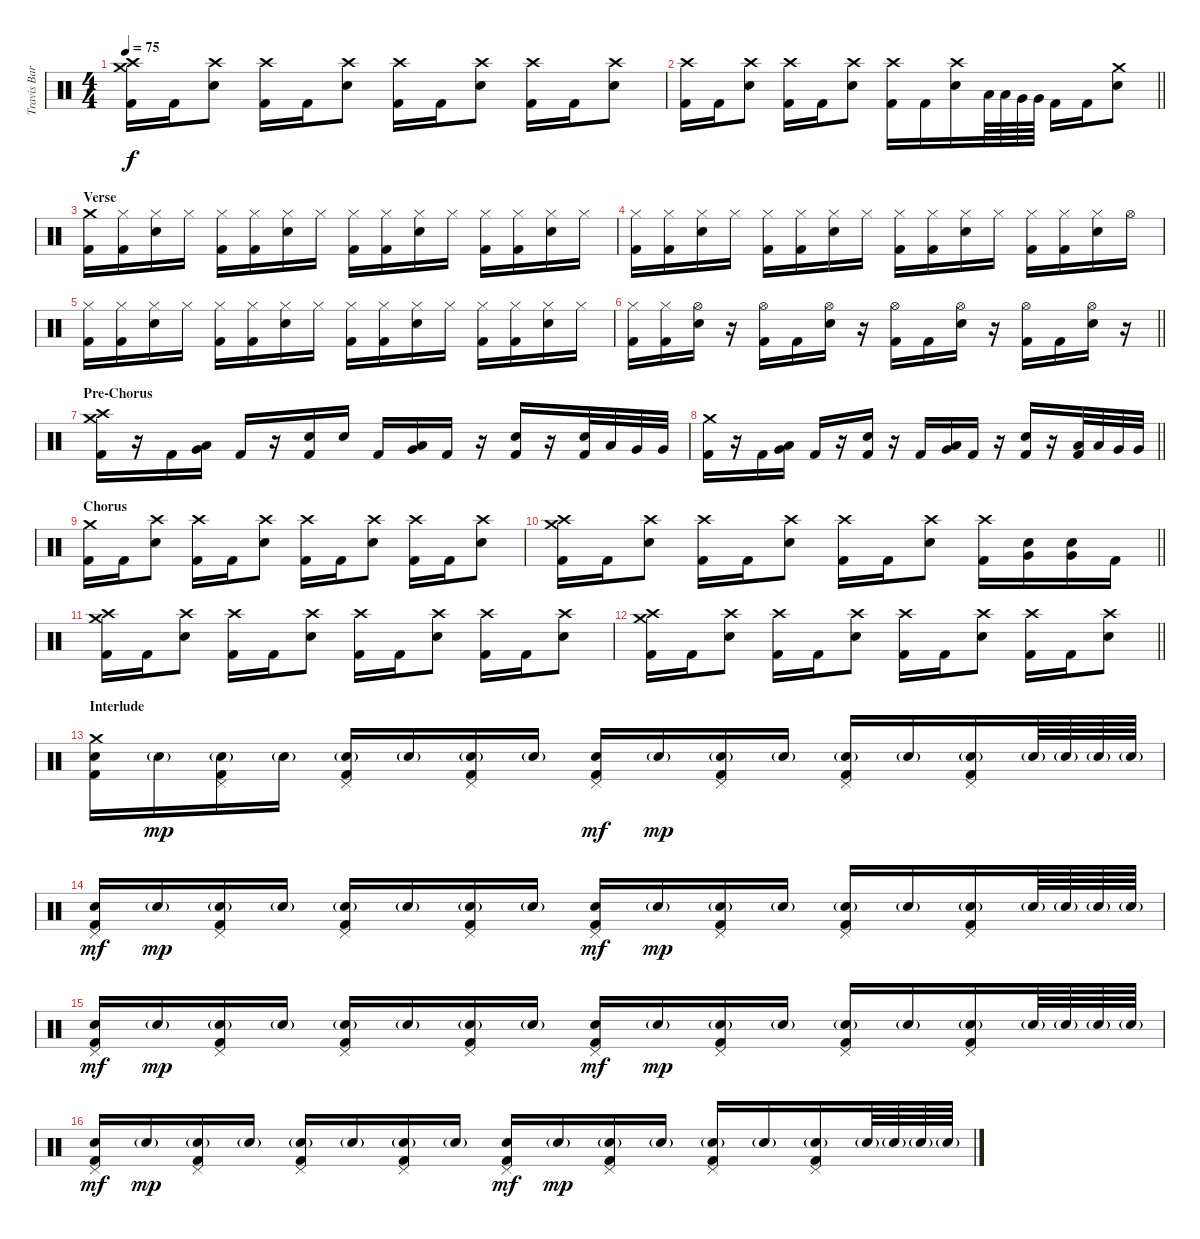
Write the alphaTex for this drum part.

\track ("Travis Barker" "Travis Bar") {instrument percussion}
\staff {score}
\articulation defaults
\ts (4 4)
\tempo 75
\clef neutral
\ks c
("Crash medium (hit)" "Crash high (hit)" "Kick (hit) 2").16{dy f} "Kick (hit) 2".16 ("Crash high (hit)" "Electric Snare (hit)").8 ("Crash high (hit)" "Kick (hit) 2").16 "Kick (hit) 2".16 ("Crash high (hit)" "Electric Snare (hit)").8 ("Crash high (hit)" "Kick (hit) 2").16 "Kick (hit) 2".16 ("Crash high (hit)" "Electric Snare (hit)").8 ("Crash high (hit)" "Kick (hit) 2").16 "Kick (hit) 2".16 ("Crash high (hit)" "Electric Snare (hit)").8 |
\barLineRight lightlight
("Crash high (hit)" "Kick (hit) 2").16 "Kick (hit) 2".16 ("Crash high (hit)" "Electric Snare (hit)").8 ("Crash high (hit)" "Kick (hit) 2").16 "Kick (hit) 2".16 ("Crash high (hit)" "Electric Snare (hit)").8 ("Crash high (hit)" "Kick (hit) 2").16 "Kick (hit) 2".16 ("Crash high (hit)" "Electric Snare (hit)").16 "Low Tom (hit)".64 "Low Tom (hit)".64 "Very Low Tom (hit)".64 "Very Low Tom (hit)".64 "Kick (hit) 2".16 "Kick (hit) 2".16 ("Crash medium (hit)" "Electric Snare (hit)").8 |
\section ("" "Verse")
("Crash medium (hit)" "Kick (hit) 2").16 ("Hi-Hat (closed)" "Kick (hit) 2").16 ("Hi-Hat (closed)" "Electric Snare (hit)").16 "Hi-Hat (closed)".16 ("Hi-Hat (closed)" "Kick (hit) 2").16 ("Hi-Hat (closed)" "Kick (hit) 2").16 ("Hi-Hat (closed)" "Electric Snare (hit)").16 "Hi-Hat (closed)".16 ("Hi-Hat (closed)" "Kick (hit) 2").16 ("Hi-Hat (closed)" "Kick (hit) 2").16 ("Hi-Hat (closed)" "Electric Snare (hit)").16 "Hi-Hat (closed)".16 ("Hi-Hat (closed)" "Kick (hit) 2").16 ("Hi-Hat (closed)" "Kick (hit) 2").16 ("Hi-Hat (closed)" "Electric Snare (hit)").16 "Hi-Hat (closed)".16 |
("Hi-Hat (closed)" "Kick (hit) 2").16 ("Hi-Hat (closed)" "Kick (hit) 2").16 ("Hi-Hat (closed)" "Electric Snare (hit)").16 "Hi-Hat (closed)".16 ("Hi-Hat (closed)" "Kick (hit) 2").16 ("Hi-Hat (closed)" "Kick (hit) 2").16 ("Hi-Hat (closed)" "Electric Snare (hit)").16 "Hi-Hat (closed)".16 ("Hi-Hat (closed)" "Kick (hit) 2").16 ("Hi-Hat (closed)" "Kick (hit) 2").16 ("Hi-Hat (closed)" "Electric Snare (hit)").16 "Hi-Hat (closed)".16 ("Hi-Hat (closed)" "Kick (hit) 2").16 ("Hi-Hat (closed)" "Kick (hit) 2").16 ("Hi-Hat (closed)" "Electric Snare (hit)").16 "Hi-Hat (open)".16 |
("Hi-Hat (closed)" "Kick (hit) 2").16 ("Hi-Hat (closed)" "Kick (hit) 2").16 ("Hi-Hat (closed)" "Electric Snare (hit)").16 "Hi-Hat (closed)".16 ("Hi-Hat (closed)" "Kick (hit) 2").16 ("Hi-Hat (closed)" "Kick (hit) 2").16 ("Hi-Hat (closed)" "Electric Snare (hit)").16 "Hi-Hat (closed)".16 ("Hi-Hat (closed)" "Kick (hit) 2").16 ("Hi-Hat (closed)" "Kick (hit) 2").16 ("Hi-Hat (closed)" "Electric Snare (hit)").16 "Hi-Hat (closed)".16 ("Hi-Hat (closed)" "Kick (hit) 2").16 ("Hi-Hat (closed)" "Kick (hit) 2").16 ("Hi-Hat (closed)" "Electric Snare (hit)").16 "Hi-Hat (closed)".16 |
\barLineRight lightlight
("Hi-Hat (closed)" "Kick (hit) 2").16 ("Hi-Hat (closed)" "Kick (hit) 2").16 ("Hi-Hat (open)" "Electric Snare (hit)").16 r.16 ("Hi-Hat (open)" "Kick (hit) 2").16 "Kick (hit) 2".16 ("Hi-Hat (open)" "Electric Snare (hit)").16 r.16 ("Hi-Hat (open)" "Kick (hit) 2").16 "Kick (hit) 2".16 ("Hi-Hat (open)" "Electric Snare (hit)").16 r.16 ("Hi-Hat (open)" "Kick (hit) 2").16 "Kick (hit) 2".16 ("Hi-Hat (open)" "Electric Snare (hit)").16 r.16 |
\section ("" "Pre-Chorus")
("Crash medium (hit)" "Crash high (hit)" "Kick (hit) 2").16 r.16 "Kick (hit) 2".16 ("Low Tom (hit)" "Very Low Tom (hit)").16 "Kick (hit) 2".16 r.16 ("Electric Snare (hit)" "Kick (hit) 2").16 "Electric Snare (hit)".16 "Kick (hit) 2".16 ("Low Tom (hit)" "Very Low Tom (hit)").16 "Kick (hit) 2".16 r.16 ("Electric Snare (hit)" "Kick (hit) 2").16 r.16 ("Electric Snare (hit)" "Kick (hit) 2").32 "Low Tom (hit)".32 "Very Low Tom (hit)".32 "Very Low Tom (hit)".32 |
\barLineRight lightlight
("Crash medium (hit)" "Kick (hit) 2").16 r.16 "Kick (hit) 2".16 ("Low Tom (hit)" "Very Low Tom (hit)").16 "Kick (hit) 2".16 r.16 ("Electric Snare (hit)" "Kick (hit) 2").16 r.16 "Kick (hit) 2".16 ("Low Tom (hit)" "Very Low Tom (hit)").16 "Kick (hit) 2".16 r.16 ("Electric Snare (hit)" "Kick (hit) 2").16 r.16 ("Low Tom (hit)" "Kick (hit) 2").32 "Low Tom (hit)".32 "Very Low Tom (hit)".32 "Very Low Tom (hit)".32 |
\section ("" "Chorus")
("Crash medium (hit)" "Kick (hit) 2").16 "Kick (hit) 2".16 ("Crash high (hit)" "Electric Snare (hit)").8 ("Crash high (hit)" "Kick (hit) 2").16 "Kick (hit) 2".16 ("Crash high (hit)" "Electric Snare (hit)").8 ("Crash high (hit)" "Kick (hit) 2").16 "Kick (hit) 2".16 ("Crash high (hit)" "Electric Snare (hit)").8 ("Crash high (hit)" "Kick (hit) 2").16 "Kick (hit) 2".16 ("Crash high (hit)" "Electric Snare (hit)").8 |
\barLineRight lightlight
("Crash medium (hit)" "Crash high (hit)" "Kick (hit) 2").16 "Kick (hit) 2".16 ("Crash high (hit)" "Electric Snare (hit)").8 ("Crash high (hit)" "Kick (hit) 2").16 "Kick (hit) 2".16 ("Crash high (hit)" "Electric Snare (hit)").8 ("Crash high (hit)" "Kick (hit) 2").16 "Kick (hit) 2".16 ("Crash high (hit)" "Electric Snare (hit)").8 ("Crash high (hit)" "Kick (hit) 2").16 ("Electric Snare (hit)" "Very Low Tom (hit)").16 ("Electric Snare (hit)" "Very Low Tom (hit)").16 "Kick (hit) 2".16 |
("Crash medium (hit)" "Crash high (hit)" "Kick (hit) 2").16 "Kick (hit) 2".16 ("Crash high (hit)" "Electric Snare (hit)").8 ("Crash high (hit)" "Kick (hit) 2").16 "Kick (hit) 2".16 ("Crash high (hit)" "Electric Snare (hit)").8 ("Crash high (hit)" "Kick (hit) 2").16 "Kick (hit) 2".16 ("Crash high (hit)" "Electric Snare (hit)").8 ("Crash high (hit)" "Kick (hit) 2").16 "Kick (hit) 2".16 ("Crash high (hit)" "Electric Snare (hit)").8 |
\barLineRight lightlight
("Crash medium (hit)" "Crash high (hit)" "Kick (hit) 2").16 "Kick (hit) 2".16 ("Crash high (hit)" "Electric Snare (hit)").8 ("Crash high (hit)" "Kick (hit) 2").16 "Kick (hit) 2".16 ("Crash high (hit)" "Electric Snare (hit)").8 ("Crash high (hit)" "Kick (hit) 2").16 "Kick (hit) 2".16 ("Crash high (hit)" "Electric Snare (hit)").8 ("Crash high (hit)" "Kick (hit) 2").16 "Kick (hit) 2".16 ("Crash high (hit)" "Electric Snare (hit)").8 |
\section ("" "Interlude")
("Crash medium (hit)" "Electric Snare (hit)" "Kick (hit) 2").16 "Electric Snare (hit)"{g}.16{dy mp} ("Pedal Hi-Hat (hit)" "Electric Snare (hit)"{g} "Kick (hit) 2").16 "Electric Snare (hit)"{g}.16 ("Pedal Hi-Hat (hit)" "Electric Snare (hit)"{g} "Kick (hit) 2").16 "Electric Snare (hit)"{g}.16 ("Pedal Hi-Hat (hit)" "Electric Snare (hit)"{g} "Kick (hit) 2").16 "Electric Snare (hit)"{g}.16 ("Pedal Hi-Hat (hit)" "Electric Snare (hit)" "Kick (hit) 2").16{dy mf} "Electric Snare (hit)"{g}.16{dy mp} ("Pedal Hi-Hat (hit)" "Electric Snare (hit)"{g} "Kick (hit) 2").16 "Electric Snare (hit)"{g}.16 ("Pedal Hi-Hat (hit)" "Electric Snare (hit)"{g} "Kick (hit) 2").16 "Electric Snare (hit)"{g}.16 ("Pedal Hi-Hat (hit)" "Electric Snare (hit)"{g} "Kick (hit) 2").16 "Electric Snare (hit)"{g}.64 "Electric Snare (hit)"{g}.64 "Electric Snare (hit)"{g}.64 "Electric Snare (hit)"{g}.64 |
("Pedal Hi-Hat (hit)" "Electric Snare (hit)" "Kick (hit) 2").16{dy mf} "Electric Snare (hit)"{g}.16{dy mp} ("Pedal Hi-Hat (hit)" "Electric Snare (hit)"{g} "Kick (hit) 2").16 "Electric Snare (hit)"{g}.16 ("Pedal Hi-Hat (hit)" "Electric Snare (hit)"{g} "Kick (hit) 2").16 "Electric Snare (hit)"{g}.16 ("Pedal Hi-Hat (hit)" "Electric Snare (hit)"{g} "Kick (hit) 2").16 "Electric Snare (hit)"{g}.16 ("Pedal Hi-Hat (hit)" "Electric Snare (hit)" "Kick (hit) 2").16{dy mf} "Electric Snare (hit)"{g}.16{dy mp} ("Pedal Hi-Hat (hit)" "Electric Snare (hit)"{g} "Kick (hit) 2").16 "Electric Snare (hit)"{g}.16 ("Pedal Hi-Hat (hit)" "Electric Snare (hit)"{g} "Kick (hit) 2").16 "Electric Snare (hit)"{g}.16 ("Pedal Hi-Hat (hit)" "Electric Snare (hit)"{g} "Kick (hit) 2").16 "Electric Snare (hit)"{g}.64 "Electric Snare (hit)"{g}.64 "Electric Snare (hit)"{g}.64 "Electric Snare (hit)"{g}.64 |
("Pedal Hi-Hat (hit)" "Electric Snare (hit)" "Kick (hit) 2").16{dy mf} "Electric Snare (hit)"{g}.16{dy mp} ("Pedal Hi-Hat (hit)" "Electric Snare (hit)"{g} "Kick (hit) 2").16 "Electric Snare (hit)"{g}.16 ("Pedal Hi-Hat (hit)" "Electric Snare (hit)"{g} "Kick (hit) 2").16 "Electric Snare (hit)"{g}.16 ("Pedal Hi-Hat (hit)" "Electric Snare (hit)"{g} "Kick (hit) 2").16 "Electric Snare (hit)"{g}.16 ("Pedal Hi-Hat (hit)" "Electric Snare (hit)" "Kick (hit) 2").16{dy mf} "Electric Snare (hit)"{g}.16{dy mp} ("Pedal Hi-Hat (hit)" "Electric Snare (hit)"{g} "Kick (hit) 2").16 "Electric Snare (hit)"{g}.16 ("Pedal Hi-Hat (hit)" "Electric Snare (hit)"{g} "Kick (hit) 2").16 "Electric Snare (hit)"{g}.16 ("Pedal Hi-Hat (hit)" "Electric Snare (hit)"{g} "Kick (hit) 2").16 "Electric Snare (hit)"{g}.64 "Electric Snare (hit)"{g}.64 "Electric Snare (hit)"{g}.64 "Electric Snare (hit)"{g}.64 |
("Pedal Hi-Hat (hit)" "Electric Snare (hit)" "Kick (hit) 2").16{dy mf} "Electric Snare (hit)"{g}.16{dy mp} ("Pedal Hi-Hat (hit)" "Electric Snare (hit)"{g} "Kick (hit) 2").16 "Electric Snare (hit)"{g}.16 ("Pedal Hi-Hat (hit)" "Electric Snare (hit)"{g} "Kick (hit) 2").16 "Electric Snare (hit)"{g}.16 ("Pedal Hi-Hat (hit)" "Electric Snare (hit)"{g} "Kick (hit) 2").16 "Electric Snare (hit)"{g}.16 ("Pedal Hi-Hat (hit)" "Electric Snare (hit)" "Kick (hit) 2").16{dy mf} "Electric Snare (hit)"{g}.16{dy mp} ("Pedal Hi-Hat (hit)" "Electric Snare (hit)"{g} "Kick (hit) 2").16 "Electric Snare (hit)"{g}.16 ("Pedal Hi-Hat (hit)" "Electric Snare (hit)"{g} "Kick (hit) 2").16 "Electric Snare (hit)"{g}.16 ("Pedal Hi-Hat (hit)" "Electric Snare (hit)"{g} "Kick (hit) 2").16 "Electric Snare (hit)"{g}.64 "Electric Snare (hit)"{g}.64 "Electric Snare (hit)"{g}.64 "Electric Snare (hit)"{g}.64
